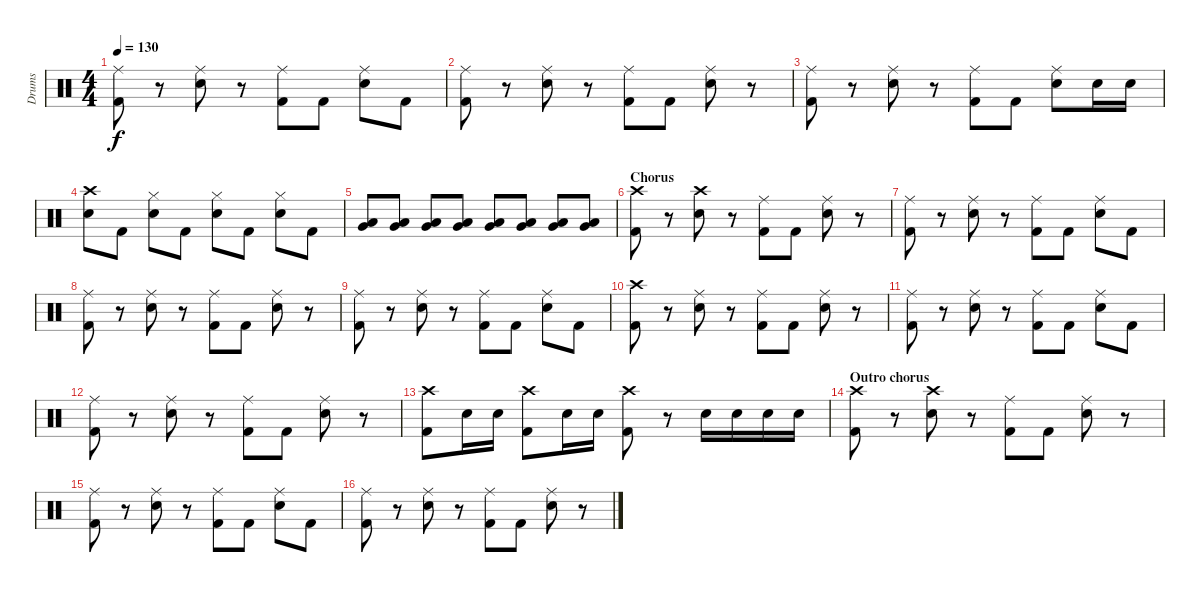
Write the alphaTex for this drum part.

\track ("Drums" "Drums") {instrument percussion}
\staff {score}
\articulation defaults
\ts (4 4)
\tempo 130
\clef neutral
\ks c
("Ride (middle)" "Kick (hit) 2").8{dy f} r.8 ("Ride (middle)" "Electric Snare (hit)").8 r.8 ("Ride (middle)" "Kick (hit) 2").8 "Kick (hit) 2".8 ("Ride (middle)" "Electric Snare (hit)").8 "Kick (hit) 2".8 |
("Ride (middle)" "Kick (hit) 2").8 r.8 ("Ride (middle)" "Electric Snare (hit)").8 r.8 ("Ride (middle)" "Kick (hit) 2").8 "Kick (hit) 2".8 ("Ride (middle)" "Electric Snare (hit)").8 r.8 |
("Ride (middle)" "Kick (hit) 2").8 r.8 ("Ride (middle)" "Electric Snare (hit)").8 r.8 ("Ride (middle)" "Kick (hit) 2").8 "Kick (hit) 2".8 ("Ride (middle)" "Electric Snare (hit)").8 "Electric Snare (hit)".16 "Electric Snare (hit)".16 |
("Crash high (hit)" "Electric Snare (hit)").8 "Kick (hit) 2".8 ("Hi-Hat (closed)" "Electric Snare (hit)").8 "Kick (hit) 2".8 ("Hi-Hat (closed)" "Electric Snare (hit)").8 "Kick (hit) 2".8 ("Hi-Hat (closed)" "Electric Snare (hit)").8 "Kick (hit) 2".8 |
("Very Low Tom (hit)" "Low Tom (hit)").8 ("Very Low Tom (hit)" "Low Tom (hit)").8 ("Very Low Tom (hit)" "Low Tom (hit)").8 ("Very Low Tom (hit)" "Low Tom (hit)").8 ("Very Low Tom (hit)" "Low Tom (hit)").8 ("Very Low Tom (hit)" "Low Tom (hit)").8 ("Very Low Tom (hit)" "Low Tom (hit)").8 ("Very Low Tom (hit)" "Low Tom (hit)").8 |
\section ("" "Chorus")
("Crash high (hit)" "Kick (hit) 2").8 r.8 ("Crash high (hit)" "Electric Snare (hit)").8 r.8 ("Ride (middle)" "Kick (hit) 2").8 "Kick (hit) 2".8 ("Ride (middle)" "Electric Snare (hit)").8 r.8 |
("Ride (middle)" "Kick (hit) 2").8 r.8 ("Ride (middle)" "Electric Snare (hit)").8 r.8 ("Ride (middle)" "Kick (hit) 2").8 "Kick (hit) 2".8 ("Ride (middle)" "Electric Snare (hit)").8 "Kick (hit) 2".8 |
("Ride (middle)" "Kick (hit) 2").8 r.8 ("Ride (middle)" "Electric Snare (hit)").8 r.8 ("Ride (middle)" "Kick (hit) 2").8 "Kick (hit) 2".8 ("Ride (middle)" "Electric Snare (hit)").8 r.8 |
("Ride (middle)" "Kick (hit) 2").8 r.8 ("Ride (middle)" "Electric Snare (hit)").8 r.8 ("Ride (middle)" "Kick (hit) 2").8 "Kick (hit) 2".8 ("Ride (middle)" "Electric Snare (hit)").8 "Kick (hit) 2".8 |
("Crash high (hit)" "Kick (hit) 2").8 r.8 ("Ride (middle)" "Electric Snare (hit)").8 r.8 ("Ride (middle)" "Kick (hit) 2").8 "Kick (hit) 2".8 ("Ride (middle)" "Electric Snare (hit)").8 r.8 |
("Ride (middle)" "Kick (hit) 2").8 r.8 ("Ride (middle)" "Electric Snare (hit)").8 r.8 ("Ride (middle)" "Kick (hit) 2").8 "Kick (hit) 2".8 ("Ride (middle)" "Electric Snare (hit)").8 "Kick (hit) 2".8 |
("Ride (middle)" "Kick (hit) 2").8 r.8 ("Ride (middle)" "Electric Snare (hit)").8 r.8 ("Ride (middle)" "Kick (hit) 2").8 "Kick (hit) 2".8 ("Ride (middle)" "Electric Snare (hit)").8 r.8 |
("Crash high (hit)" "Kick (hit) 2").8 "Electric Snare (hit)".16 "Electric Snare (hit)".16 ("Crash high (hit)" "Kick (hit) 2").8 "Electric Snare (hit)".16 "Electric Snare (hit)".16 ("Crash high (hit)" "Kick (hit) 2").8 r.8 "Electric Snare (hit)".16 "Electric Snare (hit)".16 "Electric Snare (hit)".16 "Electric Snare (hit)".16 |
\section ("" "Outro chorus")
("Crash high (hit)" "Kick (hit) 2").8 r.8 ("Crash high (hit)" "Electric Snare (hit)").8 r.8 ("Ride (middle)" "Kick (hit) 2").8 "Kick (hit) 2".8 ("Ride (middle)" "Electric Snare (hit)").8 r.8 |
("Ride (middle)" "Kick (hit) 2").8 r.8 ("Ride (middle)" "Electric Snare (hit)").8 r.8 ("Ride (middle)" "Kick (hit) 2").8 "Kick (hit) 2".8 ("Ride (middle)" "Electric Snare (hit)").8 "Kick (hit) 2".8 |
("Ride (middle)" "Kick (hit) 2").8 r.8 ("Ride (middle)" "Electric Snare (hit)").8 r.8 ("Ride (middle)" "Kick (hit) 2").8 "Kick (hit) 2".8 ("Ride (middle)" "Electric Snare (hit)").8 r.8
